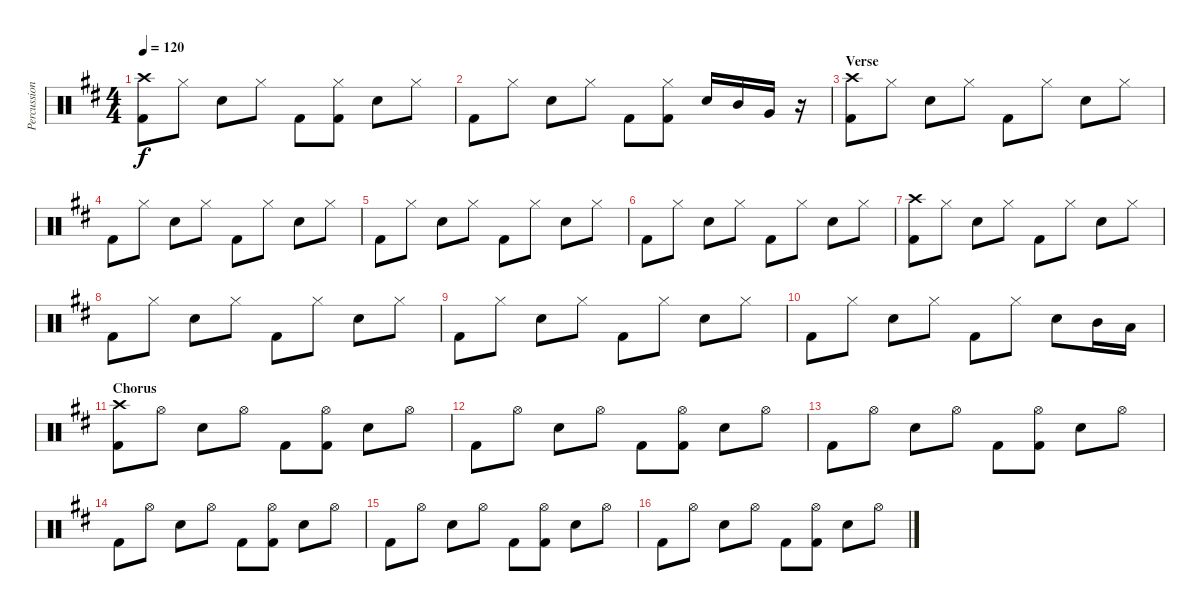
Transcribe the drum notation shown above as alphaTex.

\track ("Percussion" "Percussion") {instrument percussion}
\staff {score}
\articulation defaults
\ts (4 4)
\tempo 120
\clef neutral
\ks d
("Crash high (hit)" "Kick (hit) 2").8{dy f} "Hi-Hat (closed)".8 "Snare (hit) 2".8 "Hi-Hat (closed)".8 "Kick (hit) 2".8 ("Hi-Hat (closed)" "Kick (hit) 2").8 "Snare (hit) 2".8 "Hi-Hat (closed)".8 |
"Kick (hit) 2".8 "Hi-Hat (closed)".8 "Snare (hit) 2".8 "Hi-Hat (closed)".8 "Kick (hit) 2".8 ("Hi-Hat (closed)" "Kick (hit) 2").8 "Snare (hit) 2".16 "Mid Tom (hit)".16 "Very Low Tom (hit)".16 r.16 |
\section ("" "Verse")
("Crash high (hit)" "Kick (hit) 2").8 "Hi-Hat (closed)".8 "Snare (hit) 2".8 "Hi-Hat (closed)".8 "Kick (hit) 2".8 "Hi-Hat (closed)".8 "Snare (hit) 2".8 "Hi-Hat (closed)".8 |
"Kick (hit) 2".8 "Hi-Hat (closed)".8 "Snare (hit) 2".8 "Hi-Hat (closed)".8 "Kick (hit) 2".8 "Hi-Hat (closed)".8 "Snare (hit) 2".8 "Hi-Hat (closed)".8 |
"Kick (hit) 2".8 "Hi-Hat (closed)".8 "Snare (hit) 2".8 "Hi-Hat (closed)".8 "Kick (hit) 2".8 "Hi-Hat (closed)".8 "Snare (hit) 2".8 "Hi-Hat (closed)".8 |
"Kick (hit) 2".8 "Hi-Hat (closed)".8 "Snare (hit) 2".8 "Hi-Hat (closed)".8 "Kick (hit) 2".8 "Hi-Hat (closed)".8 "Snare (hit) 2".8 "Hi-Hat (closed)".8 |
("Crash high (hit)" "Kick (hit) 2").8 "Hi-Hat (closed)".8 "Snare (hit) 2".8 "Hi-Hat (closed)".8 "Kick (hit) 2".8 "Hi-Hat (closed)".8 "Snare (hit) 2".8 "Hi-Hat (closed)".8 |
"Kick (hit) 2".8 "Hi-Hat (closed)".8 "Snare (hit) 2".8 "Hi-Hat (closed)".8 "Kick (hit) 2".8 "Hi-Hat (closed)".8 "Snare (hit) 2".8 "Hi-Hat (closed)".8 |
"Kick (hit) 2".8 "Hi-Hat (closed)".8 "Snare (hit) 2".8 "Hi-Hat (closed)".8 "Kick (hit) 2".8 "Hi-Hat (closed)".8 "Snare (hit) 2".8 "Hi-Hat (closed)".8 |
"Kick (hit) 2".8 "Hi-Hat (closed)".8 "Snare (hit) 2".8 "Hi-Hat (closed)".8 "Kick (hit) 2".8 "Hi-Hat (closed)".8 "Snare (hit) 2".8 "Mid Tom (hit)".16 "Low Tom (hit)".16 |
\section ("" "Chorus")
("Crash high (hit)" "Kick (hit) 2").8 "Hi-Hat (open)".8 "Snare (hit) 2".8 "Hi-Hat (open)".8 "Kick (hit) 2".8 ("Hi-Hat (open)" "Kick (hit) 2").8 "Snare (hit) 2".8 "Hi-Hat (open)".8 |
"Kick (hit) 2".8 "Hi-Hat (open)".8 "Snare (hit) 2".8 "Hi-Hat (open)".8 "Kick (hit) 2".8 ("Hi-Hat (open)" "Kick (hit) 2").8 "Snare (hit) 2".8 "Hi-Hat (open)".8 |
"Kick (hit) 2".8 "Hi-Hat (open)".8 "Snare (hit) 2".8 "Hi-Hat (open)".8 "Kick (hit) 2".8 ("Hi-Hat (open)" "Kick (hit) 2").8 "Snare (hit) 2".8 "Hi-Hat (open)".8 |
"Kick (hit) 2".8 "Hi-Hat (open)".8 "Snare (hit) 2".8 "Hi-Hat (open)".8 "Kick (hit) 2".8 ("Hi-Hat (open)" "Kick (hit) 2").8 "Snare (hit) 2".8 "Hi-Hat (open)".8 |
"Kick (hit) 2".8 "Hi-Hat (open)".8 "Snare (hit) 2".8 "Hi-Hat (open)".8 "Kick (hit) 2".8 ("Hi-Hat (open)" "Kick (hit) 2").8 "Snare (hit) 2".8 "Hi-Hat (open)".8 |
"Kick (hit) 2".8 "Hi-Hat (open)".8 "Snare (hit) 2".8 "Hi-Hat (open)".8 "Kick (hit) 2".8 ("Hi-Hat (open)" "Kick (hit) 2").8 "Snare (hit) 2".8 "Hi-Hat (open)".8
